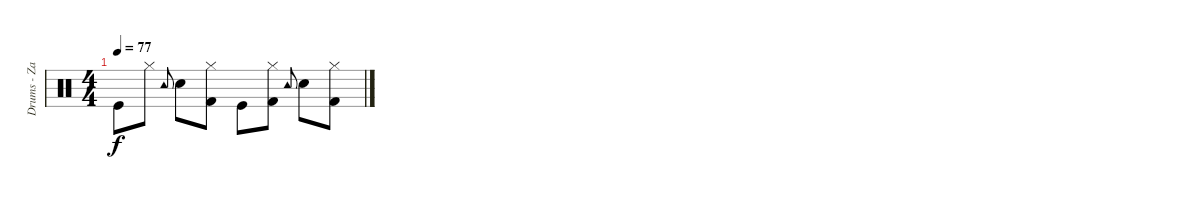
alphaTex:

\track ("Drums - Zakk Starkey" "Drums - Za") {instrument percussion}
\staff {score}
\articulation defaults
\ts (4 4)
\tempo 77
\clef neutral
\ks c "Kick (hit)".8{dy f} "Hi-Hat (closed)".8 "Tambourine (hit)".8{gr onbeat} "Snare (hit) 2".8
("Hi-Hat (closed)" "Kick (hit) 2").8 "Kick (hit)".8 ("Hi-Hat (closed)" "Kick (hit) 2").8 "Tambourine (hit)".8{gr onbeat} "Snare (hit) 2".8 ("Hi-Hat (closed)" "Kick (hit) 2").8
